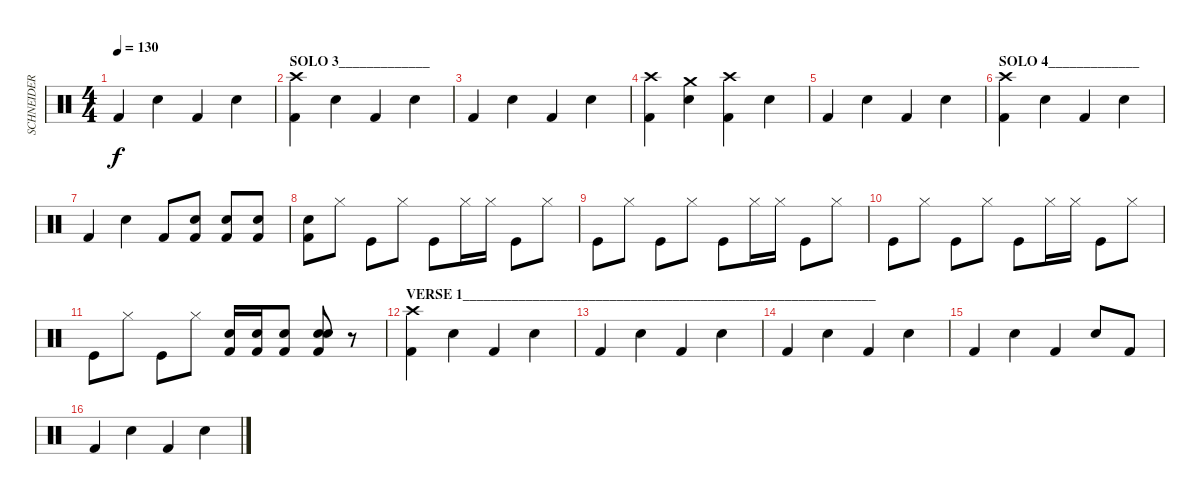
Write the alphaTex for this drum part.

\track ("SCHNEIDER - Drums" "SCHNEIDER ") {instrument percussion}
\staff {score}
\articulation defaults
\ts (4 4)
\tempo 130
\clef neutral
\ks c "Kick (hit) 2".4{dy f} "Snare (hit) 2".4 "Kick (hit) 2".4 "Snare (hit) 2".4
|
\section ("" "SOLO 3_____________")
("Crash high (hit)" "Kick (hit) 2").4 "Snare (hit) 2".4 "Kick (hit) 2".4 "Snare (hit) 2".4 |
"Kick (hit) 2".4 "Snare (hit) 2".4 "Kick (hit) 2".4 "Snare (hit) 2".4 |
("Crash high (hit)" "Kick (hit) 2").4 ("Crash medium (hit)" "Snare (hit) 2").4 ("Crash high (hit)" "Kick (hit) 2").4 "Snare (hit) 2".4 |
"Kick (hit) 2".4 "Snare (hit) 2".4 "Kick (hit) 2".4 "Snare (hit) 2".4 |
\section ("" "SOLO 4_____________")
("Crash high (hit)" "Kick (hit) 2").4 "Snare (hit) 2".4 "Kick (hit) 2".4 "Snare (hit) 2".4 |
"Kick (hit) 2".4 "Snare (hit) 2".4 "Kick (hit) 2".8 ("Electric Snare (hit)" "Kick (hit) 2").8 ("Electric Snare (hit)" "Kick (hit) 2").8 ("Snare (hit) 2" "Kick (hit) 2").8 |
("Snare (hit) 2" "Kick (hit) 2").8 "Hi-Hat (closed)".8 "Kick (hit)".8 "Hi-Hat (closed)".8 "Kick (hit)".8 "Hi-Hat (closed)".16 "Hi-Hat (closed)".16 "Kick (hit)".8 "Hi-Hat (closed)".8 |
"Kick (hit)".8 "Hi-Hat (closed)".8 "Kick (hit)".8 "Hi-Hat (closed)".8 "Kick (hit)".8 "Hi-Hat (closed)".16 "Hi-Hat (closed)".16 "Kick (hit)".8 "Hi-Hat (closed)".8 |
"Kick (hit)".8 "Hi-Hat (closed)".8 "Kick (hit)".8 "Hi-Hat (closed)".8 "Kick (hit)".8 "Hi-Hat (closed)".16 "Hi-Hat (closed)".16 "Kick (hit)".8 "Hi-Hat (closed)".8 |
"Kick (hit)".8 "Hi-Hat (closed)".8 "Kick (hit)".8 "Hi-Hat (closed)".8 ("Electric Snare (hit)" "Kick (hit) 2").16 ("Electric Snare (hit)" "Kick (hit) 2").16 ("Snare (hit) 2" "Kick (hit) 2").8 ("Snare (hit) 2" "Kick (hit) 2" "Electric Snare (hit)").8 r.8 |
\section ("" "VERSE 1___________________________________________________________")
("Crash high (hit)" "Kick (hit) 2").4 "Snare (hit) 2".4 "Kick (hit) 2".4 "Snare (hit) 2".4 |
"Kick (hit) 2".4 "Snare (hit) 2".4 "Kick (hit) 2".4 "Snare (hit) 2".4 |
"Kick (hit) 2".4 "Snare (hit) 2".4 "Kick (hit) 2".4 "Snare (hit) 2".4 |
"Kick (hit) 2".4 "Snare (hit) 2".4 "Kick (hit) 2".4 "Snare (hit) 2".8 "Kick (hit) 2".8 |
"Kick (hit) 2".4 "Snare (hit) 2".4 "Kick (hit) 2".4 "Snare (hit) 2".4
